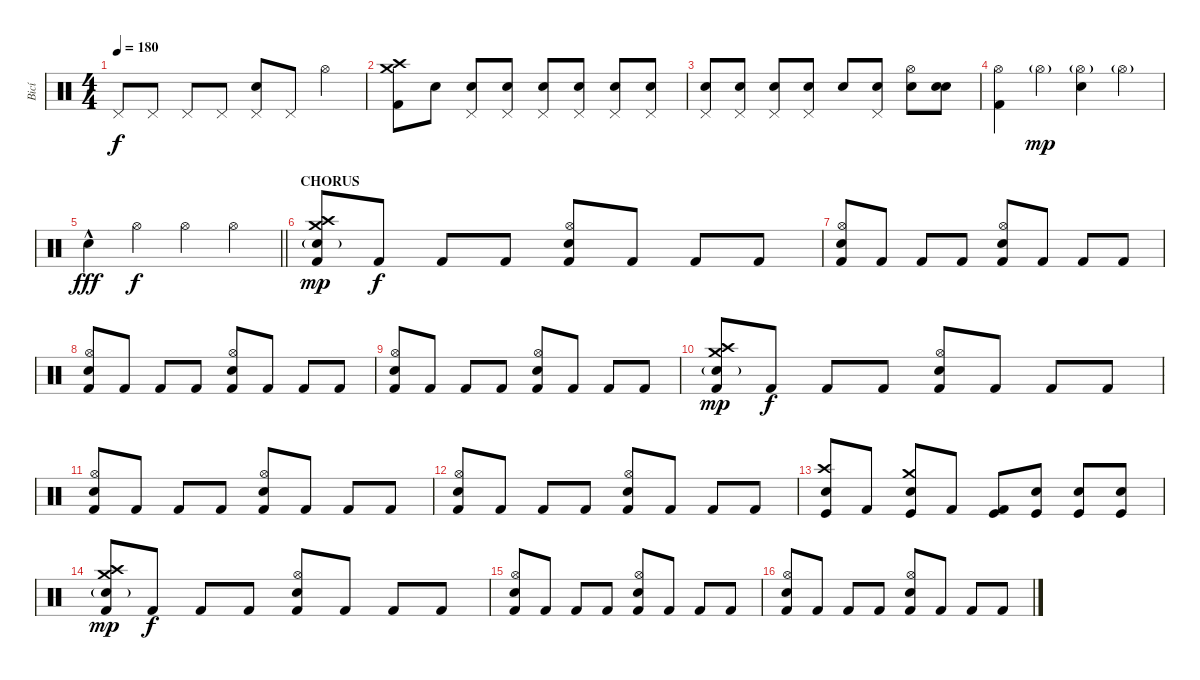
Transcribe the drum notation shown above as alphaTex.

\track ("Bicí" "Bicí") {instrument percussion}
\staff {score}
\articulation defaults
\ts (4 4)
\tempo 180
\clef neutral
\ks c "Pedal Hi-Hat (hit)".8{dy f} "Pedal Hi-Hat (hit)".8 "Pedal Hi-Hat (hit)".8 "Pedal Hi-Hat (hit)".8
("Pedal Hi-Hat (hit)" "Electric Snare (hit)").8 "Pedal Hi-Hat (hit)".8 "Hi-Hat (open)".4 |
("Crash medium (hit)" "Crash high (hit)" "Kick (hit) 2").8 "Snare (hit)".8 ("Pedal Hi-Hat (hit)" "Snare (hit)").8 ("Pedal Hi-Hat (hit)" "Snare (hit)").8 ("Pedal Hi-Hat (hit)" "Electric Snare (hit)").8 ("Pedal Hi-Hat (hit)" "Snare (hit)").8 ("Pedal Hi-Hat (hit)" "Snare (hit)").8 ("Pedal Hi-Hat (hit)" "Snare (hit)").8 |
("Pedal Hi-Hat (hit)" "Snare (hit)").8 ("Pedal Hi-Hat (hit)" "Snare (hit)").8 ("Pedal Hi-Hat (hit)" "Snare (hit)").8 ("Pedal Hi-Hat (hit)" "Snare (hit)").8 "Electric Snare (hit)".8 ("Pedal Hi-Hat (hit)" "Snare (hit)").8 ("Hi-Hat (open)" "Snare (hit)").8 ("Snare (hit)" "Snare (hit)").8 |
("Hi-Hat (open)" "Kick (hit) 2").4 "Hi-Hat (open)"{g}.4{dy mp} ("Hi-Hat (open)"{g} "Electric Snare (hit)").4 "Hi-Hat (open)"{g}.4 |
\barLineRight lightlight "Electric Snare (hit)"{hac}.4{dy fff} "Hi-Hat (open)".4{dy f} "Hi-Hat (open)".4 "Hi-Hat (open)".4
|
\section ("" "CHORUS")
("Crash high (hit)" "Crash medium (hit)" "Electric Snare (hit)"{g} "Kick (hit) 2").8{dy mp} "Kick (hit) 2".8{dy f} "Kick (hit) 2".8 "Kick (hit) 2".8 ("Hi-Hat (open)" "Electric Snare (hit)" "Kick (hit) 2").8 "Kick (hit) 2".8 "Kick (hit) 2".8 "Kick (hit) 2".8 |
("Hi-Hat (open)" "Electric Snare (hit)" "Kick (hit) 2").8 "Kick (hit) 2".8 "Kick (hit) 2".8 "Kick (hit) 2".8 ("Hi-Hat (open)" "Electric Snare (hit)" "Kick (hit) 2").8 "Kick (hit) 2".8 "Kick (hit) 2".8 "Kick (hit) 2".8 |
("Hi-Hat (open)" "Electric Snare (hit)" "Kick (hit) 2").8 "Kick (hit) 2".8 "Kick (hit) 2".8 "Kick (hit) 2".8 ("Hi-Hat (open)" "Electric Snare (hit)" "Kick (hit) 2").8 "Kick (hit) 2".8 "Kick (hit) 2".8 "Kick (hit) 2".8 |
("Hi-Hat (open)" "Electric Snare (hit)" "Kick (hit) 2").8 "Kick (hit) 2".8 "Kick (hit) 2".8 "Kick (hit) 2".8 ("Hi-Hat (open)" "Electric Snare (hit)" "Kick (hit) 2").8 "Kick (hit) 2".8 "Kick (hit) 2".8 "Kick (hit) 2".8 |
("Crash high (hit)" "Crash medium (hit)" "Electric Snare (hit)"{g} "Kick (hit) 2").8{dy mp} "Kick (hit) 2".8{dy f} "Kick (hit) 2".8 "Kick (hit) 2".8 ("Hi-Hat (open)" "Electric Snare (hit)" "Kick (hit) 2").8 "Kick (hit) 2".8 "Kick (hit) 2".8 "Kick (hit) 2".8 |
("Hi-Hat (open)" "Electric Snare (hit)" "Kick (hit) 2").8 "Kick (hit) 2".8 "Kick (hit) 2".8 "Kick (hit) 2".8 ("Hi-Hat (open)" "Electric Snare (hit)" "Kick (hit) 2").8 "Kick (hit) 2".8 "Kick (hit) 2".8 "Kick (hit) 2".8 |
("Hi-Hat (open)" "Electric Snare (hit)" "Kick (hit) 2").8 "Kick (hit) 2".8 "Kick (hit) 2".8 "Kick (hit) 2".8 ("Hi-Hat (open)" "Electric Snare (hit)" "Kick (hit) 2").8 "Kick (hit) 2".8 "Kick (hit) 2".8 "Kick (hit) 2".8 |
("Crash high (hit)" "Kick (hit)" "Electric Snare (hit)").8 "Kick (hit) 2".8 ("Crash medium (hit)" "Kick (hit)" "Electric Snare (hit)").8 "Kick (hit) 2".8 ("Kick (hit)" "Kick (hit) 2").8 ("Kick (hit)" "Electric Snare (hit)").8 ("Kick (hit)" "Electric Snare (hit)").8 ("Kick (hit)" "Electric Snare (hit)").8 |
("Crash high (hit)" "Crash medium (hit)" "Electric Snare (hit)"{g} "Kick (hit) 2").8{dy mp} "Kick (hit) 2".8{dy f} "Kick (hit) 2".8 "Kick (hit) 2".8 ("Hi-Hat (open)" "Electric Snare (hit)" "Kick (hit) 2").8 "Kick (hit) 2".8 "Kick (hit) 2".8 "Kick (hit) 2".8 |
("Hi-Hat (open)" "Electric Snare (hit)" "Kick (hit) 2").8 "Kick (hit) 2".8 "Kick (hit) 2".8 "Kick (hit) 2".8 ("Hi-Hat (open)" "Electric Snare (hit)" "Kick (hit) 2").8 "Kick (hit) 2".8 "Kick (hit) 2".8 "Kick (hit) 2".8 |
("Hi-Hat (open)" "Electric Snare (hit)" "Kick (hit) 2").8 "Kick (hit) 2".8 "Kick (hit) 2".8 "Kick (hit) 2".8 ("Hi-Hat (open)" "Electric Snare (hit)" "Kick (hit) 2").8 "Kick (hit) 2".8 "Kick (hit) 2".8 "Kick (hit) 2".8
